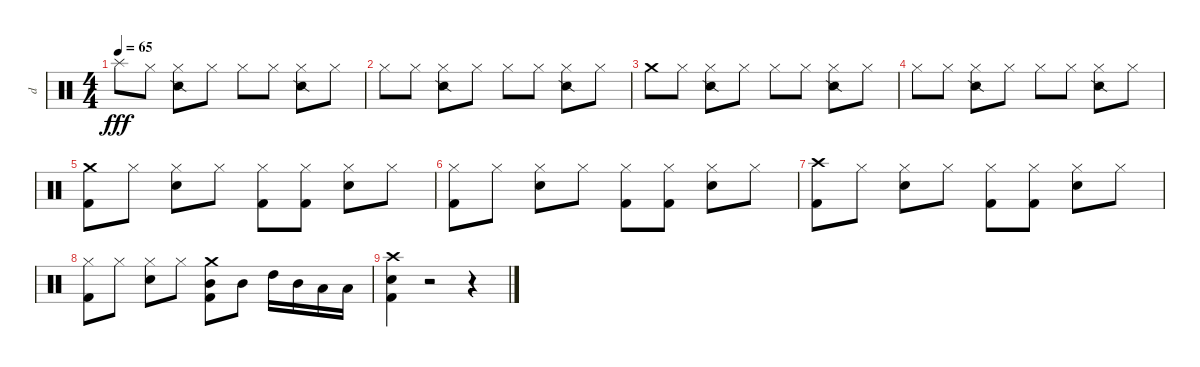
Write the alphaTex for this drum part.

\track ("d" "d") {instrument percussion}
\staff {score}
\articulation defaults
\ts (4 4)
\tempo 65
\clef neutral
\ks c "Splash (hit)".8{dy fff} "Hi-Hat (closed)".8
("Snare (side stick) 2" "Hi-Hat (closed)").8 "Hi-Hat (closed)".8 "Hi-Hat (closed)".8 "Hi-Hat (closed)".8 ("Snare (side stick) 2" "Hi-Hat (closed)").8 "Hi-Hat (closed)".8 |
"Hi-Hat (closed)".8 "Hi-Hat (closed)".8 ("Snare (side stick) 2" "Hi-Hat (closed)").8 "Hi-Hat (closed)".8 "Hi-Hat (closed)".8 "Hi-Hat (closed)".8 ("Snare (side stick) 2" "Hi-Hat (closed)").8 "Hi-Hat (closed)".8 |
"Crash medium (hit)".8 "Hi-Hat (closed)".8 ("Snare (side stick) 2" "Hi-Hat (closed)").8 "Hi-Hat (closed)".8 "Hi-Hat (closed)".8 "Hi-Hat (closed)".8 ("Snare (side stick) 2" "Hi-Hat (closed)").8 "Hi-Hat (closed)".8 |
"Hi-Hat (closed)".8 "Hi-Hat (closed)".8 ("Snare (side stick) 2" "Hi-Hat (closed)").8 "Hi-Hat (closed)".8 "Hi-Hat (closed)".8 "Hi-Hat (closed)".8 ("Snare (side stick) 2" "Hi-Hat (closed)").8 "Hi-Hat (closed)".8 |
("Crash medium (hit)" "Kick (hit) 2").8 "Hi-Hat (closed)".8 ("Snare (hit) 2" "Hi-Hat (closed)").8 "Hi-Hat (closed)".8 ("Kick (hit) 2" "Hi-Hat (closed)").8 ("Kick (hit) 2" "Hi-Hat (closed)").8 ("Snare (hit) 2" "Hi-Hat (closed)").8 "Hi-Hat (closed)".8 |
("Kick (hit) 2" "Hi-Hat (closed)").8 "Hi-Hat (closed)".8 ("Electric Snare (hit)" "Hi-Hat (closed)").8 "Hi-Hat (closed)".8 ("Hi-Hat (closed)" "Kick (hit) 2").8 ("Hi-Hat (closed)" "Kick (hit) 2").8 ("Hi-Hat (closed)" "Snare (hit) 2").8 "Hi-Hat (closed)".8 |
("Crash high (hit)" "Kick (hit) 2").8 "Hi-Hat (closed)".8 ("Snare (hit) 2" "Hi-Hat (closed)").8 "Hi-Hat (closed)".8 ("Kick (hit) 2" "Hi-Hat (closed)").8 ("Kick (hit) 2" "Hi-Hat (closed)").8 ("Snare (hit) 2" "Hi-Hat (closed)").8 "Hi-Hat (closed)".8 |
("Hi-Hat (closed)" "Kick (hit) 2").8 "Hi-Hat (closed)".8 ("Hi-Hat (closed)" "Snare (hit) 2").8 "Hi-Hat (closed)".8 ("Crash medium (hit)" "Kick (hit) 2" "Mid Tom (hit)").8 "Mid Tom (hit)".8 "High Tom (hit)".16 "Mid Tom (hit)".16 "Low Tom (hit)".16 "Low Floor Tom (hit)".16 |
("Electric Snare (hit)" "Crash high (hit)" "Kick (hit) 2").4 r.2 r.4
